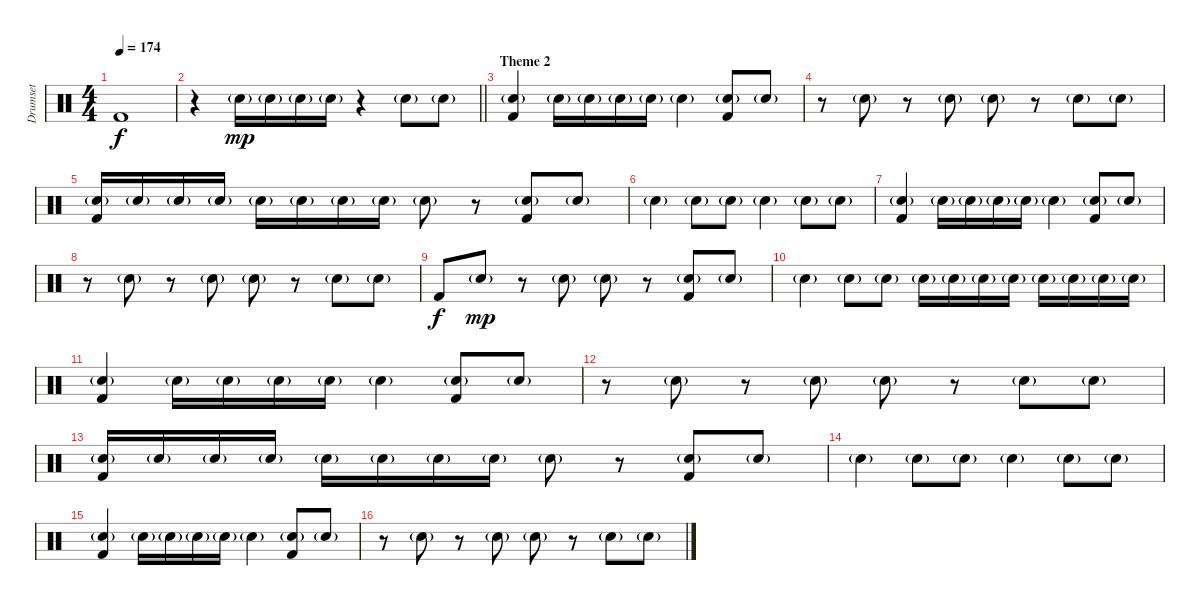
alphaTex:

\track ("Drumset" "Drumset") {instrument percussion}
\staff {score}
\articulation defaults
\ts (4 4)
\tempo 174
\clef neutral
\ks c "Kick (hit) 2".1{dy f}
|
\barLineRight lightlight
r.4 "Snare (hit) 2"{g}.16{dy mp} "Snare (hit) 2"{g}.16 "Snare (hit) 2"{g}.16 "Snare (hit) 2"{g}.16 r.4 "Snare (hit) 2"{g}.8 "Snare (hit) 2"{g}.8 |
\section ("" "Theme 2")
("Snare (hit) 2"{g} "Kick (hit) 2").4 "Snare (hit) 2"{g}.16 "Snare (hit) 2"{g}.16 "Snare (hit) 2"{g}.16 "Snare (hit) 2"{g}.16 "Snare (hit) 2"{g}.4 ("Snare (hit) 2"{g} "Kick (hit) 2").8 "Snare (hit) 2"{g}.8 |
r.8 "Snare (hit) 2"{g}.8 r.8 "Snare (hit) 2"{g}.8 "Snare (hit) 2"{g}.8 r.8 "Snare (hit) 2"{g}.8 "Snare (hit) 2"{g}.8 |
("Snare (hit) 2"{g} "Kick (hit) 2").16 "Snare (hit) 2"{g}.16 "Snare (hit) 2"{g}.16 "Snare (hit) 2"{g}.16 "Snare (hit) 2"{g}.16 "Snare (hit) 2"{g}.16 "Snare (hit) 2"{g}.16 "Snare (hit) 2"{g}.16 "Snare (hit) 2"{g}.8 r.8 ("Snare (hit) 2"{g} "Kick (hit) 2").8 "Snare (hit) 2"{g}.8 |
"Snare (hit) 2"{g}.4 "Snare (hit) 2"{g}.8 "Snare (hit) 2"{g}.8 "Snare (hit) 2"{g}.4 "Snare (hit) 2"{g}.8 "Snare (hit) 2"{g}.8 |
("Snare (hit) 2"{g} "Kick (hit) 2").4 "Snare (hit) 2"{g}.16 "Snare (hit) 2"{g}.16 "Snare (hit) 2"{g}.16 "Snare (hit) 2"{g}.16 "Snare (hit) 2"{g}.4 ("Snare (hit) 2"{g} "Kick (hit) 2").8 "Snare (hit) 2"{g}.8 |
r.8 "Snare (hit) 2"{g}.8 r.8 "Snare (hit) 2"{g}.8 "Snare (hit) 2"{g}.8 r.8 "Snare (hit) 2"{g}.8 "Snare (hit) 2"{g}.8 |
"Kick (hit) 2".8{dy f} "Snare (hit) 2"{g}.8{dy mp} r.8 "Snare (hit) 2"{g}.8 "Snare (hit) 2"{g}.8 r.8 ("Snare (hit) 2"{g} "Kick (hit) 2").8 "Snare (hit) 2"{g}.8 |
"Snare (hit) 2"{g}.4 "Snare (hit) 2"{g}.8 "Snare (hit) 2"{g}.8 "Snare (hit) 2"{g}.16 "Snare (hit) 2"{g}.16 "Snare (hit) 2"{g}.16 "Snare (hit) 2"{g}.16 "Snare (hit) 2"{g}.16 "Snare (hit) 2"{g}.16 "Snare (hit) 2"{g}.16 "Snare (hit) 2"{g}.16 |
("Snare (hit) 2"{g} "Kick (hit) 2").4 "Snare (hit) 2"{g}.16 "Snare (hit) 2"{g}.16 "Snare (hit) 2"{g}.16 "Snare (hit) 2"{g}.16 "Snare (hit) 2"{g}.4 ("Snare (hit) 2"{g} "Kick (hit) 2").8 "Snare (hit) 2"{g}.8 |
r.8 "Snare (hit) 2"{g}.8 r.8 "Snare (hit) 2"{g}.8 "Snare (hit) 2"{g}.8 r.8 "Snare (hit) 2"{g}.8 "Snare (hit) 2"{g}.8 |
("Snare (hit) 2"{g} "Kick (hit) 2").16 "Snare (hit) 2"{g}.16 "Snare (hit) 2"{g}.16 "Snare (hit) 2"{g}.16 "Snare (hit) 2"{g}.16 "Snare (hit) 2"{g}.16 "Snare (hit) 2"{g}.16 "Snare (hit) 2"{g}.16 "Snare (hit) 2"{g}.8 r.8 ("Snare (hit) 2"{g} "Kick (hit) 2").8 "Snare (hit) 2"{g}.8 |
"Snare (hit) 2"{g}.4 "Snare (hit) 2"{g}.8 "Snare (hit) 2"{g}.8 "Snare (hit) 2"{g}.4 "Snare (hit) 2"{g}.8 "Snare (hit) 2"{g}.8 |
("Snare (hit) 2"{g} "Kick (hit) 2").4 "Snare (hit) 2"{g}.16 "Snare (hit) 2"{g}.16 "Snare (hit) 2"{g}.16 "Snare (hit) 2"{g}.16 "Snare (hit) 2"{g}.4 ("Snare (hit) 2"{g} "Kick (hit) 2").8 "Snare (hit) 2"{g}.8 |
r.8 "Snare (hit) 2"{g}.8 r.8 "Snare (hit) 2"{g}.8 "Snare (hit) 2"{g}.8 r.8 "Snare (hit) 2"{g}.8 "Snare (hit) 2"{g}.8
